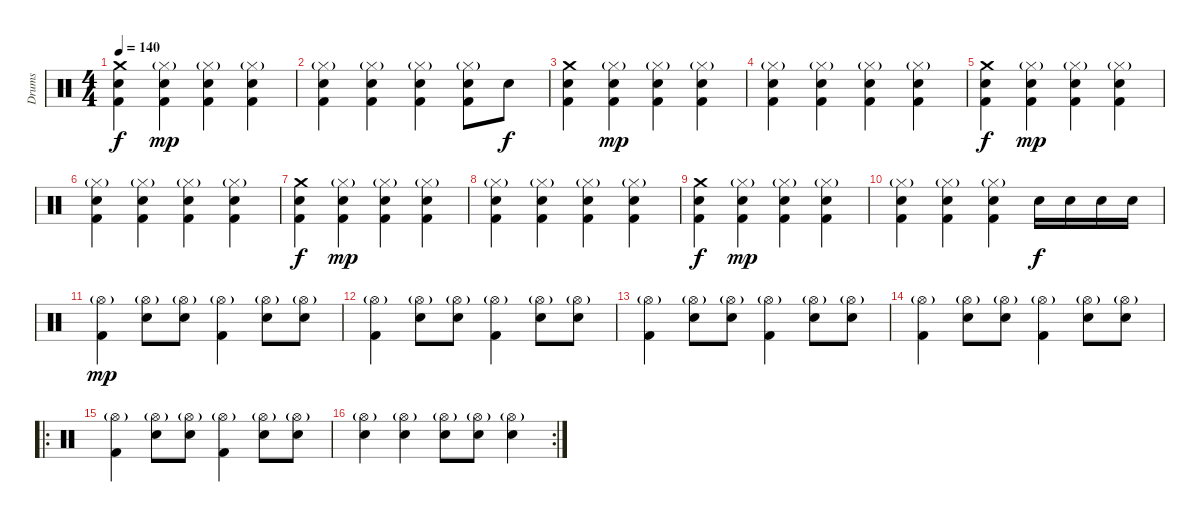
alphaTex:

\track ("Drums" "Drums") {instrument percussion}
\staff {score}
\articulation defaults
\ts (4 4)
\tempo 140
\clef neutral
\ks c
("Crash medium (hit)" "Electric Snare (hit)" "Kick (hit) 2").4{dy f} ("Hi-Hat (closed)"{g} "Electric Snare (hit)" "Kick (hit) 2").4{dy mp} ("Hi-Hat (closed)"{g} "Electric Snare (hit)" "Kick (hit) 2").4 ("Hi-Hat (closed)"{g} "Electric Snare (hit)" "Kick (hit) 2").4 |
("Hi-Hat (closed)"{g} "Electric Snare (hit)" "Kick (hit) 2").4 ("Hi-Hat (closed)"{g} "Electric Snare (hit)" "Kick (hit) 2").4 ("Hi-Hat (closed)"{g} "Electric Snare (hit)" "Kick (hit) 2").4 ("Hi-Hat (closed)"{g} "Electric Snare (hit)" "Kick (hit) 2").8 "Electric Snare (hit)".8{dy f} |
("Crash medium (hit)" "Electric Snare (hit)" "Kick (hit) 2").4 ("Hi-Hat (closed)"{g} "Electric Snare (hit)" "Kick (hit) 2").4{dy mp} ("Hi-Hat (closed)"{g} "Electric Snare (hit)" "Kick (hit) 2").4 ("Hi-Hat (closed)"{g} "Electric Snare (hit)" "Kick (hit) 2").4 |
("Hi-Hat (closed)"{g} "Electric Snare (hit)" "Kick (hit) 2").4 ("Hi-Hat (closed)"{g} "Electric Snare (hit)" "Kick (hit) 2").4 ("Hi-Hat (closed)"{g} "Electric Snare (hit)" "Kick (hit) 2").4 ("Hi-Hat (closed)"{g} "Electric Snare (hit)" "Kick (hit) 2").4 |
("Crash medium (hit)" "Electric Snare (hit)" "Kick (hit) 2").4{dy f} ("Hi-Hat (closed)"{g} "Electric Snare (hit)" "Kick (hit) 2").4{dy mp} ("Hi-Hat (closed)"{g} "Electric Snare (hit)" "Kick (hit) 2").4 ("Hi-Hat (closed)"{g} "Electric Snare (hit)" "Kick (hit) 2").4 |
("Hi-Hat (closed)"{g} "Electric Snare (hit)" "Kick (hit) 2").4 ("Hi-Hat (closed)"{g} "Electric Snare (hit)" "Kick (hit) 2").4 ("Hi-Hat (closed)"{g} "Electric Snare (hit)" "Kick (hit) 2").4 ("Hi-Hat (closed)"{g} "Electric Snare (hit)" "Kick (hit) 2").4 |
("Crash medium (hit)" "Electric Snare (hit)" "Kick (hit) 2").4{dy f} ("Hi-Hat (closed)"{g} "Electric Snare (hit)" "Kick (hit) 2").4{dy mp} ("Hi-Hat (closed)"{g} "Electric Snare (hit)" "Kick (hit) 2").4 ("Hi-Hat (closed)"{g} "Electric Snare (hit)" "Kick (hit) 2").4 |
("Hi-Hat (closed)"{g} "Electric Snare (hit)" "Kick (hit) 2").4 ("Hi-Hat (closed)"{g} "Electric Snare (hit)" "Kick (hit) 2").4 ("Hi-Hat (closed)"{g} "Electric Snare (hit)" "Kick (hit) 2").4 ("Hi-Hat (closed)"{g} "Electric Snare (hit)" "Kick (hit) 2").4 |
("Crash medium (hit)" "Electric Snare (hit)" "Kick (hit) 2").4{dy f} ("Hi-Hat (closed)"{g} "Electric Snare (hit)" "Kick (hit) 2").4{dy mp} ("Hi-Hat (closed)"{g} "Electric Snare (hit)" "Kick (hit) 2").4 ("Hi-Hat (closed)"{g} "Electric Snare (hit)" "Kick (hit) 2").4 |
("Hi-Hat (closed)"{g} "Electric Snare (hit)" "Kick (hit) 2").4 ("Hi-Hat (closed)"{g} "Electric Snare (hit)" "Kick (hit) 2").4 ("Hi-Hat (closed)"{g} "Electric Snare (hit)" "Kick (hit) 2").4 "Electric Snare (hit)".16{dy f} "Electric Snare (hit)".16 "Electric Snare (hit)".16 "Electric Snare (hit)".16 |
("Hi-Hat (open)"{g} "Kick (hit) 2").4{dy mp} ("Hi-Hat (open)"{g} "Electric Snare (hit)").8 ("Hi-Hat (open)"{g} "Electric Snare (hit)").8 ("Hi-Hat (open)"{g} "Kick (hit) 2").4 ("Hi-Hat (open)"{g} "Electric Snare (hit)").8 ("Hi-Hat (open)"{g} "Electric Snare (hit)").8 |
("Hi-Hat (open)"{g} "Kick (hit) 2").4 ("Hi-Hat (open)"{g} "Electric Snare (hit)").8 ("Hi-Hat (open)"{g} "Electric Snare (hit)").8 ("Hi-Hat (open)"{g} "Kick (hit) 2").4 ("Hi-Hat (open)"{g} "Electric Snare (hit)").8 ("Hi-Hat (open)"{g} "Electric Snare (hit)").8 |
("Hi-Hat (open)"{g} "Kick (hit) 2").4 ("Hi-Hat (open)"{g} "Electric Snare (hit)").8 ("Hi-Hat (open)"{g} "Electric Snare (hit)").8 ("Hi-Hat (open)"{g} "Kick (hit) 2").4 ("Hi-Hat (open)"{g} "Electric Snare (hit)").8 ("Hi-Hat (open)"{g} "Electric Snare (hit)").8 |
("Hi-Hat (open)"{g} "Kick (hit) 2").4 ("Hi-Hat (open)"{g} "Electric Snare (hit)").8 ("Hi-Hat (open)"{g} "Electric Snare (hit)").8 ("Hi-Hat (open)"{g} "Kick (hit) 2").4 ("Hi-Hat (open)"{g} "Electric Snare (hit)").8 ("Hi-Hat (open)"{g} "Electric Snare (hit)").8 |
\ro
("Hi-Hat (open)"{g} "Kick (hit) 2").4 ("Hi-Hat (open)"{g} "Electric Snare (hit)").8 ("Hi-Hat (open)"{g} "Electric Snare (hit)").8 ("Hi-Hat (open)"{g} "Kick (hit) 2").4 ("Hi-Hat (open)"{g} "Electric Snare (hit)").8 ("Hi-Hat (open)"{g} "Electric Snare (hit)").8 |
\rc 2
("Hi-Hat (open)"{g} "Electric Snare (hit)").4 ("Hi-Hat (open)"{g} "Electric Snare (hit)").4 ("Hi-Hat (open)"{g} "Electric Snare (hit)").8 ("Hi-Hat (open)"{g} "Electric Snare (hit)").8 ("Hi-Hat (open)"{g} "Electric Snare (hit)").4
